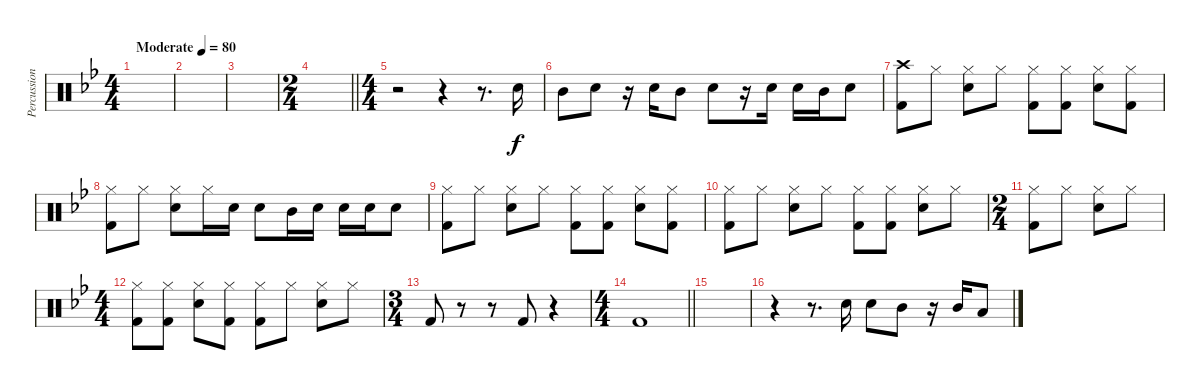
\track ("Percussion" "Percussion") {instrument percussion}
\staff {score}
\articulation defaults
\ts (4 4)
\tempo (80 "Moderate")
\clef neutral
\ks bb
|
|
|
\ts (2 4)
\barLineRight lightlight
|
\ts (4 4)
r.2 r.4 r.8{d} "Snare (hit) 2".16 |
"Mid Tom (hit)".8 "Snare (hit) 2".8 r.16 "Snare (hit) 2".16 "Mid Tom (hit)".8 "Snare (hit) 2".8 r.16 "Snare (hit) 2".16 "Snare (hit) 2".16 "Mid Tom (hit)".16 "Snare (hit) 2".8 |
("Crash high (hit)" "Kick (hit) 2").8 "Hi-Hat (closed)".8 ("Hi-Hat (closed)" "Snare (hit) 2").8 "Hi-Hat (closed)".8 ("Hi-Hat (closed)" "Kick (hit) 2").8 ("Hi-Hat (closed)" "Kick (hit) 2").8 ("Hi-Hat (closed)" "Snare (hit) 2").8 ("Hi-Hat (closed)" "Kick (hit) 2").8 |
("Hi-Hat (closed)" "Kick (hit) 2").8 "Hi-Hat (closed)".8 ("Hi-Hat (closed)" "Snare (hit) 2").8 "Hi-Hat (closed)".16 "Snare (hit) 2".16 "Snare (hit) 2".8 "Mid Tom (hit)".16 "Snare (hit) 2".16 "Snare (hit) 2".16 "Snare (hit) 2".16 "Snare (hit) 2".8 |
("Hi-Hat (closed)" "Kick (hit) 2").8 "Hi-Hat (closed)".8 ("Hi-Hat (closed)" "Snare (hit) 2").8 "Hi-Hat (closed)".8 ("Hi-Hat (closed)" "Kick (hit) 2").8 ("Hi-Hat (closed)" "Kick (hit) 2").8 ("Hi-Hat (closed)" "Snare (hit) 2").8 ("Hi-Hat (closed)" "Kick (hit) 2").8 |
("Hi-Hat (closed)" "Kick (hit) 2").8 "Hi-Hat (closed)".8 ("Hi-Hat (closed)" "Snare (hit) 2").8 "Hi-Hat (closed)".8 ("Hi-Hat (closed)" "Kick (hit) 2").8 ("Hi-Hat (closed)" "Kick (hit) 2").8 ("Hi-Hat (closed)" "Snare (hit) 2").8 "Hi-Hat (closed)".8 |
\ts (2 4)
("Hi-Hat (closed)" "Kick (hit) 2").8 "Hi-Hat (closed)".8 ("Hi-Hat (closed)" "Snare (hit) 2").8 "Hi-Hat (closed)".8 |
\ts (4 4)
("Hi-Hat (closed)" "Kick (hit) 2").8 ("Hi-Hat (closed)" "Kick (hit) 2").8 ("Hi-Hat (closed)" "Snare (hit) 2").8 ("Hi-Hat (closed)" "Kick (hit) 2").8 ("Hi-Hat (closed)" "Kick (hit) 2").8 "Hi-Hat (closed)".8 ("Hi-Hat (closed)" "Snare (hit) 2").8 "Hi-Hat (closed)".8 |
\ts (3 4)
"Kick (hit) 2".8 r.8 r.8 "Kick (hit) 2".8 r.4 |
\ts (4 4)
\barLineRight lightlight "Kick (hit) 2".1
|
|
r.4 r.8{d} "Snare (hit) 2".16 "Snare (hit) 2".8 "Mid Tom (hit)".8 r.16 "Mid Tom (hit)".16 "Low Floor Tom (hit)".8
